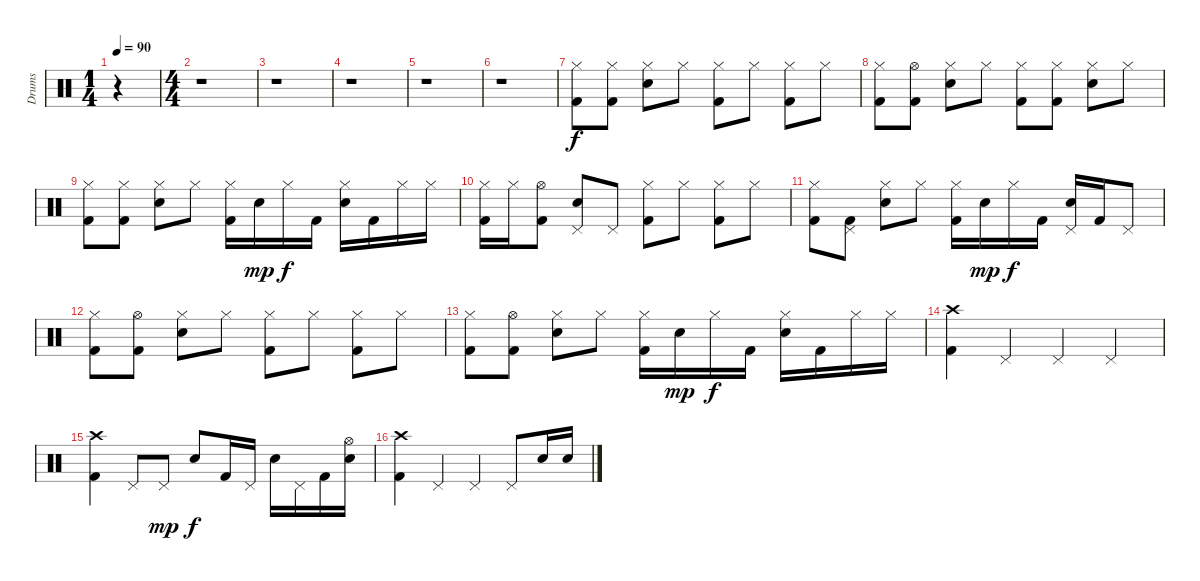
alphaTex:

\track ("Drums" "Drums") {instrument percussion}
\staff {score}
\articulation defaults
\ts (1 4)
\tempo 90
\clef neutral
\ks c
r.4{dy f} |
\ts (4 4)
r.1 |
r.1 |
r.1 |
r.1 |
r.1 |
("Hi-Hat (closed)" "Kick (hit) 2").8 ("Hi-Hat (closed)" "Kick (hit) 2").8 ("Hi-Hat (closed)" "Snare (hit) 2").8 "Hi-Hat (closed)".8 ("Hi-Hat (closed)" "Kick (hit) 2").8 "Hi-Hat (closed)".8 ("Hi-Hat (closed)" "Kick (hit) 2").8 "Hi-Hat (closed)".8 |
("Hi-Hat (closed)" "Kick (hit) 2").8 ("Hi-Hat (open)" "Kick (hit) 2").8 ("Hi-Hat (closed)" "Snare (hit) 2").8 "Hi-Hat (closed)".8 ("Hi-Hat (closed)" "Kick (hit) 2").8 ("Hi-Hat (closed)" "Kick (hit) 2").8 ("Hi-Hat (closed)" "Snare (hit) 2").8 "Hi-Hat (closed)".8 |
("Hi-Hat (closed)" "Kick (hit) 2").8 ("Hi-Hat (closed)" "Kick (hit) 2").8 ("Hi-Hat (closed)" "Snare (hit) 2").8 "Hi-Hat (closed)".8 ("Hi-Hat (closed)" "Kick (hit) 2").16 "Snare (hit) 2".16{dy mp} "Hi-Hat (closed)".16{dy f} "Kick (hit) 2".16 ("Hi-Hat (closed)" "Snare (hit) 2").16 "Kick (hit) 2".16 "Hi-Hat (closed)".16 "Hi-Hat (closed)".16 |
("Hi-Hat (closed)" "Kick (hit) 2").16 "Hi-Hat (closed)".16 ("Hi-Hat (open)" "Kick (hit) 2").8 ("Pedal Hi-Hat (hit)" "Snare (hit) 2").8 "Pedal Hi-Hat (hit)".8 ("Hi-Hat (closed)" "Kick (hit) 2").8 "Hi-Hat (closed)".8 ("Hi-Hat (closed)" "Kick (hit) 2").8 "Hi-Hat (closed)".8 |
("Hi-Hat (closed)" "Kick (hit) 2").8 ("Pedal Hi-Hat (hit)" "Kick (hit) 2").8 ("Hi-Hat (closed)" "Snare (hit) 2").8 "Hi-Hat (closed)".8 ("Hi-Hat (closed)" "Kick (hit) 2").16 "Snare (hit) 2".16{dy mp} "Hi-Hat (closed)".16{dy f} "Kick (hit) 2".16 ("Pedal Hi-Hat (hit)" "Snare (hit) 2").16 "Kick (hit) 2".16 "Pedal Hi-Hat (hit)".8 |
("Hi-Hat (closed)" "Kick (hit) 2").8 ("Hi-Hat (open)" "Kick (hit) 2").8 ("Hi-Hat (closed)" "Snare (hit) 2").8 "Hi-Hat (closed)".8 ("Hi-Hat (closed)" "Kick (hit) 2").8 "Hi-Hat (closed)".8 ("Hi-Hat (closed)" "Kick (hit) 2").8 "Hi-Hat (closed)".8 |
("Hi-Hat (closed)" "Kick (hit) 2").8 ("Hi-Hat (open)" "Kick (hit) 2").8 ("Hi-Hat (closed)" "Snare (hit) 2").8 "Hi-Hat (closed)".8 ("Hi-Hat (closed)" "Kick (hit) 2").16 "Snare (hit) 2".16{dy mp} "Hi-Hat (closed)".16{dy f} "Kick (hit) 2".16 ("Hi-Hat (closed)" "Snare (hit) 2").16 "Kick (hit) 2".16 "Hi-Hat (closed)".16 "Hi-Hat (closed)".16 |
("Crash high (hit)" "Kick (hit) 2").4 "Pedal Hi-Hat (hit)".4 "Pedal Hi-Hat (hit)".4 "Pedal Hi-Hat (hit)".4 |
("Crash high (hit)" "Kick (hit) 2").4 "Pedal Hi-Hat (hit)".8 "Pedal Hi-Hat (hit)".8{dy mp} "Snare (hit) 2".8{dy f} "Kick (hit) 2".16 "Pedal Hi-Hat (hit)".16 "Snare (hit) 2".16 "Pedal Hi-Hat (hit)".16 "Kick (hit) 2".16 ("Hi-Hat (open)" "Snare (hit) 2").16 |
("Crash high (hit)" "Kick (hit) 2").4 "Pedal Hi-Hat (hit)".4 "Pedal Hi-Hat (hit)".4 "Pedal Hi-Hat (hit)".8 "Snare (hit) 2".16 "Snare (hit) 2".16
